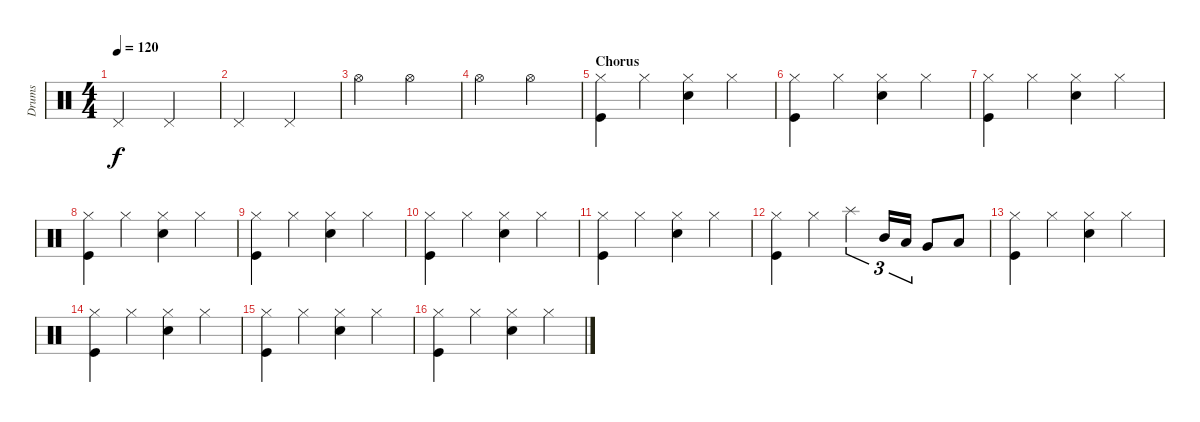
\track ("Drums" "Drums") {instrument percussion}
\staff {score}
\articulation defaults
\ts (4 4)
\tempo 120
\clef neutral
\ks c "Pedal Hi-Hat (hit)".2{dy f} "Pedal Hi-Hat (hit)".2
|
"Pedal Hi-Hat (hit)".2 "Pedal Hi-Hat (hit)".2 |
"Hi-Hat (open)".2 "Hi-Hat (open)".2 |
"Hi-Hat (open)".2 "Hi-Hat (open)".2 |
\section ("" "Chorus")
("Hi-Hat (closed)" "Kick (hit)").4 "Hi-Hat (closed)".4 ("Hi-Hat (closed)" "Snare (hit) 2").4 "Hi-Hat (closed)".4 |
("Hi-Hat (closed)" "Kick (hit)").4 "Hi-Hat (closed)".4 ("Hi-Hat (closed)" "Snare (hit) 2").4 "Hi-Hat (closed)".4 |
("Hi-Hat (closed)" "Kick (hit)").4 "Hi-Hat (closed)".4 ("Hi-Hat (closed)" "Snare (hit) 2").4 "Hi-Hat (closed)".4 |
("Hi-Hat (closed)" "Kick (hit)").4 "Hi-Hat (closed)".4 ("Hi-Hat (closed)" "Snare (hit) 2").4 "Hi-Hat (closed)".4 |
("Hi-Hat (closed)" "Kick (hit)").4 "Hi-Hat (closed)".4 ("Hi-Hat (closed)" "Snare (hit) 2").4 "Hi-Hat (closed)".4 |
("Hi-Hat (closed)" "Kick (hit)").4 "Hi-Hat (closed)".4 ("Hi-Hat (closed)" "Snare (hit) 2").4 "Hi-Hat (closed)".4 |
("Hi-Hat (closed)" "Kick (hit)").4 "Hi-Hat (closed)".4 ("Hi-Hat (closed)" "Snare (hit) 2").4 "Hi-Hat (closed)".4 |
("Hi-Hat (closed)" "Kick (hit)").4 "Hi-Hat (closed)".4 "Splash (hit)".4{tu (3 2)} "Mid Tom (hit)".16{tu (3 2)} "Low Tom (hit)".16{tu (3 2)} "Very Low Tom (hit)".8 "Low Floor Tom (hit)".8 |
("Hi-Hat (closed)" "Kick (hit)").4 "Hi-Hat (closed)".4 ("Hi-Hat (closed)" "Snare (hit) 2").4 "Hi-Hat (closed)".4 |
("Hi-Hat (closed)" "Kick (hit)").4 "Hi-Hat (closed)".4 ("Hi-Hat (closed)" "Snare (hit) 2").4 "Hi-Hat (closed)".4 |
("Hi-Hat (closed)" "Kick (hit)").4 "Hi-Hat (closed)".4 ("Hi-Hat (closed)" "Snare (hit) 2").4 "Hi-Hat (closed)".4 |
("Hi-Hat (closed)" "Kick (hit)").4 "Hi-Hat (closed)".4 ("Hi-Hat (closed)" "Snare (hit) 2").4 "Hi-Hat (closed)".4
